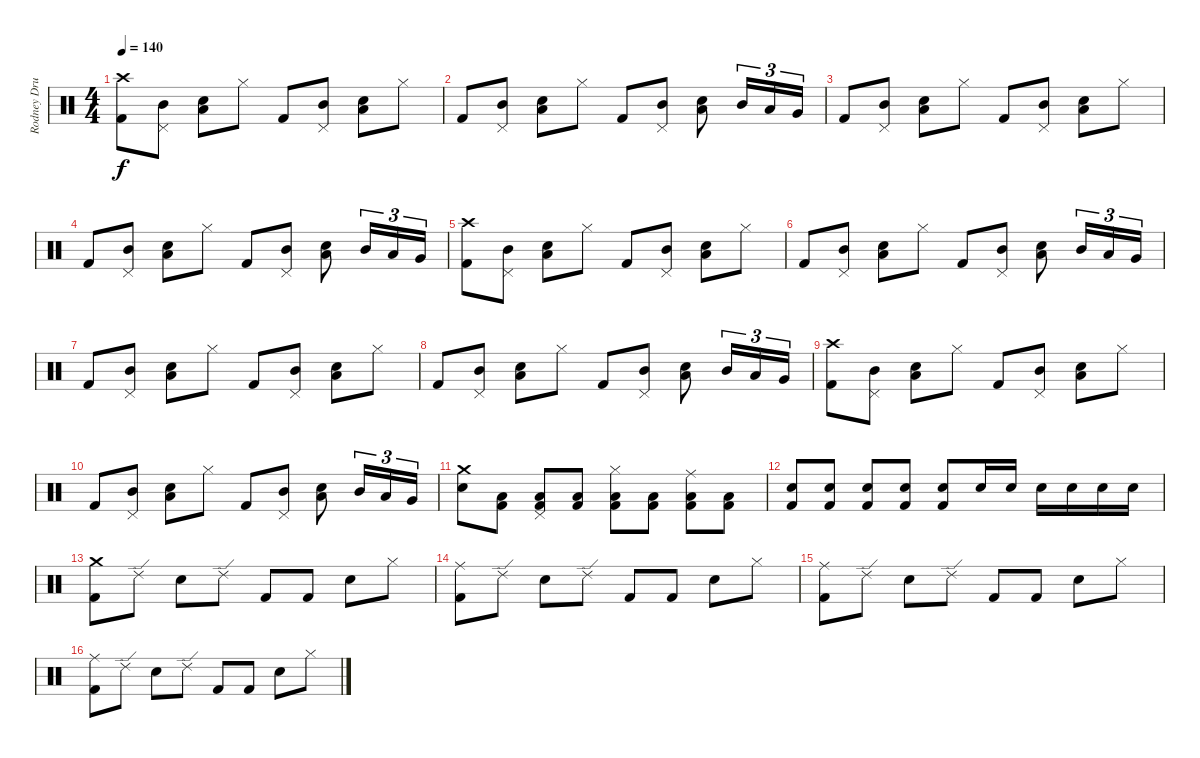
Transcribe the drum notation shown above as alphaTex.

\track ("Rodney Drums" "Rodney Dru") {instrument percussion}
\staff {score}
\articulation defaults
\ts (4 4)
\tempo 140
\clef neutral
\ks c
("Crash high (hit)" "Kick (hit) 2").8{dy f} ("Pedal Hi-Hat (hit)" "Mid Tom (hit)").8 ("Electric Snare (hit)" "Low Tom (hit)").8 "Hi-Hat (closed)".8 "Kick (hit) 2".8 ("Pedal Hi-Hat (hit)" "Mid Tom (hit)").8 ("Electric Snare (hit)" "Low Tom (hit)").8 "Hi-Hat (closed)".8 |
"Kick (hit) 2".8 ("Pedal Hi-Hat (hit)" "Mid Tom (hit)").8 ("Electric Snare (hit)" "Low Tom (hit)").8 "Hi-Hat (closed)".8 "Kick (hit) 2".8 ("Pedal Hi-Hat (hit)" "Mid Tom (hit)").8 ("Electric Snare (hit)" "Low Tom (hit)").8 "Mid Tom (hit)".16{tu (3 2)} "Low Tom (hit)".16{tu (3 2)} "Very Low Tom (hit)".16{tu (3 2)} |
"Kick (hit) 2".8 ("Pedal Hi-Hat (hit)" "Mid Tom (hit)").8 ("Electric Snare (hit)" "Low Tom (hit)").8 "Hi-Hat (closed)".8 "Kick (hit) 2".8 ("Pedal Hi-Hat (hit)" "Mid Tom (hit)").8 ("Electric Snare (hit)" "Low Tom (hit)").8 "Hi-Hat (closed)".8 |
"Kick (hit) 2".8 ("Pedal Hi-Hat (hit)" "Mid Tom (hit)").8 ("Electric Snare (hit)" "Low Tom (hit)").8 "Hi-Hat (closed)".8 "Kick (hit) 2".8 ("Pedal Hi-Hat (hit)" "Mid Tom (hit)").8 ("Electric Snare (hit)" "Low Tom (hit)").8 "Mid Tom (hit)".16{tu (3 2)} "Low Tom (hit)".16{tu (3 2)} "Very Low Tom (hit)".16{tu (3 2)} |
("Crash high (hit)" "Kick (hit) 2").8 ("Pedal Hi-Hat (hit)" "Mid Tom (hit)").8 ("Electric Snare (hit)" "Low Tom (hit)").8 "Hi-Hat (closed)".8 "Kick (hit) 2".8 ("Pedal Hi-Hat (hit)" "Mid Tom (hit)").8 ("Electric Snare (hit)" "Low Tom (hit)").8 "Hi-Hat (closed)".8 |
"Kick (hit) 2".8 ("Pedal Hi-Hat (hit)" "Mid Tom (hit)").8 ("Electric Snare (hit)" "Low Tom (hit)").8 "Hi-Hat (closed)".8 "Kick (hit) 2".8 ("Pedal Hi-Hat (hit)" "Mid Tom (hit)").8 ("Electric Snare (hit)" "Low Tom (hit)").8 "Mid Tom (hit)".16{tu (3 2)} "Low Tom (hit)".16{tu (3 2)} "Very Low Tom (hit)".16{tu (3 2)} |
"Kick (hit) 2".8 ("Pedal Hi-Hat (hit)" "Mid Tom (hit)").8 ("Electric Snare (hit)" "Low Tom (hit)").8 "Hi-Hat (closed)".8 "Kick (hit) 2".8 ("Pedal Hi-Hat (hit)" "Mid Tom (hit)").8 ("Electric Snare (hit)" "Low Tom (hit)").8 "Hi-Hat (closed)".8 |
"Kick (hit) 2".8 ("Pedal Hi-Hat (hit)" "Mid Tom (hit)").8 ("Electric Snare (hit)" "Low Tom (hit)").8 "Hi-Hat (closed)".8 "Kick (hit) 2".8 ("Pedal Hi-Hat (hit)" "Mid Tom (hit)").8 ("Electric Snare (hit)" "Low Tom (hit)").8 "Mid Tom (hit)".16{tu (3 2)} "Low Tom (hit)".16{tu (3 2)} "Very Low Tom (hit)".16{tu (3 2)} |
("Crash high (hit)" "Kick (hit) 2").8 ("Pedal Hi-Hat (hit)" "Mid Tom (hit)").8 ("Electric Snare (hit)" "Low Tom (hit)").8 "Hi-Hat (closed)".8 "Kick (hit) 2".8 ("Pedal Hi-Hat (hit)" "Mid Tom (hit)").8 ("Electric Snare (hit)" "Low Tom (hit)").8 "Hi-Hat (closed)".8 |
"Kick (hit) 2".8 ("Pedal Hi-Hat (hit)" "Mid Tom (hit)").8 ("Electric Snare (hit)" "Low Tom (hit)").8 "Hi-Hat (closed)".8 "Kick (hit) 2".8 ("Pedal Hi-Hat (hit)" "Mid Tom (hit)").8 ("Electric Snare (hit)" "Low Tom (hit)").8 "Mid Tom (hit)".16{tu (3 2)} "Low Tom (hit)".16{tu (3 2)} "Very Low Tom (hit)".16{tu (3 2)} |
("Crash medium (hit)" "Electric Snare (hit)").8 ("Low Tom (hit)" "Kick (hit) 2").8 ("Pedal Hi-Hat (hit)" "Low Tom (hit)" "Kick (hit) 2").8 ("Low Tom (hit)" "Kick (hit) 2").8 ("Hi-Hat (closed)" "Low Tom (hit)" "Kick (hit) 2").8 ("Low Tom (hit)" "Kick (hit) 2").8 ("Ride (middle)" "Low Tom (hit)" "Kick (hit) 2").8 ("Low Tom (hit)" "Kick (hit) 2").8 |
("Electric Snare (hit)" "Kick (hit) 2").8 ("Electric Snare (hit)" "Kick (hit) 2").8 ("Electric Snare (hit)" "Kick (hit) 2").8 ("Electric Snare (hit)" "Kick (hit) 2").8 ("Electric Snare (hit)" "Kick (hit) 2").8 "Electric Snare (hit)".16 "Electric Snare (hit)".16 "Electric Snare (hit)".16 "Electric Snare (hit)".16 "Electric Snare (hit)".16 "Electric Snare (hit)".16 |
("Crash medium (hit)" "Kick (hit) 2").8 "Ride (edge) 2".8 "Electric Snare (hit)".8 "Ride (edge) 2".8 "Kick (hit) 2".8 "Kick (hit) 2".8 "Electric Snare (hit)".8 "Hi-Hat (closed)".8 |
("Ride (middle)" "Kick (hit) 2").8 "Ride (edge) 2".8 "Electric Snare (hit)".8 "Ride (edge) 2".8 "Kick (hit) 2".8 "Kick (hit) 2".8 "Electric Snare (hit)".8 "Hi-Hat (closed)".8 |
("Ride (middle)" "Kick (hit) 2").8 "Ride (edge) 2".8 "Electric Snare (hit)".8 "Ride (edge) 2".8 "Kick (hit) 2".8 "Kick (hit) 2".8 "Electric Snare (hit)".8 "Hi-Hat (closed)".8 |
("Ride (middle)" "Kick (hit) 2").8 "Ride (edge) 2".8 "Electric Snare (hit)".8 "Ride (edge) 2".8 "Kick (hit) 2".8 "Kick (hit) 2".8 "Electric Snare (hit)".8 "Hi-Hat (closed)".8
